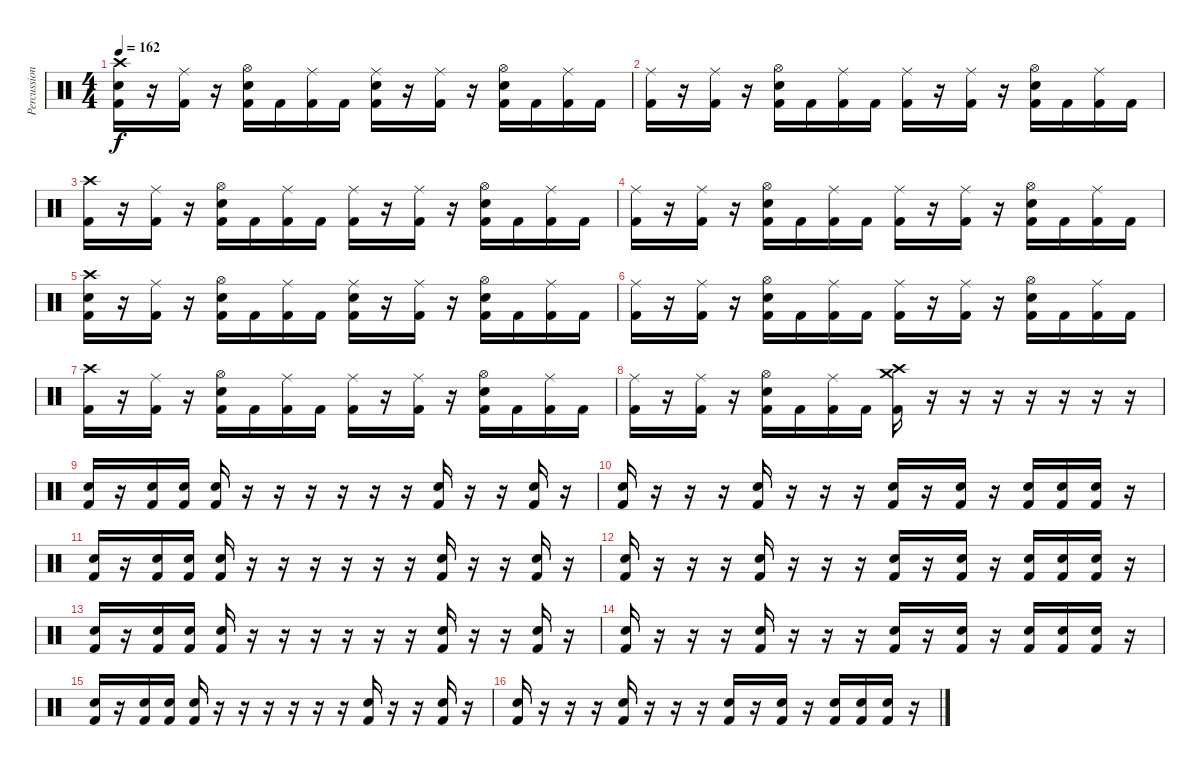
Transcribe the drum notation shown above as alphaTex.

\track ("Percussion" "Percussion") {instrument percussion}
\staff {score}
\articulation defaults
\ts (4 4)
\tempo 162
\clef neutral
\ks c
("Crash high (hit)" "Electric Snare (hit)" "Kick (hit) 2").16{dy f} r.16 ("Ride (middle)" "Kick (hit) 2").16 r.16 ("Hi-Hat (open)" "Electric Snare (hit)" "Kick (hit) 2").16 "Kick (hit) 2".16 ("Ride (middle)" "Kick (hit) 2").16 "Kick (hit) 2".16 ("Ride (middle)" "Electric Snare (hit)" "Kick (hit) 2").16 r.16 ("Ride (middle)" "Kick (hit) 2").16 r.16 ("Hi-Hat (open)" "Electric Snare (hit)" "Kick (hit) 2").16 "Kick (hit) 2".16 ("Ride (middle)" "Kick (hit) 2").16 "Kick (hit) 2".16 |
("Ride (middle)" "Kick (hit) 2").16 r.16 ("Ride (middle)" "Kick (hit) 2").16 r.16 ("Hi-Hat (open)" "Electric Snare (hit)" "Kick (hit) 2").16 "Kick (hit) 2".16 ("Ride (middle)" "Kick (hit) 2").16 "Kick (hit) 2".16 ("Ride (middle)" "Kick (hit) 2").16 r.16 ("Ride (middle)" "Kick (hit) 2").16 r.16 ("Hi-Hat (open)" "Electric Snare (hit)" "Kick (hit) 2").16 "Kick (hit) 2".16 ("Ride (middle)" "Kick (hit) 2").16 "Kick (hit) 2".16 |
("Crash high (hit)" "Kick (hit) 2").16 r.16 ("Ride (middle)" "Kick (hit) 2").16 r.16 ("Hi-Hat (open)" "Electric Snare (hit)" "Kick (hit) 2").16 "Kick (hit) 2".16 ("Ride (middle)" "Kick (hit) 2").16 "Kick (hit) 2".16 ("Ride (middle)" "Kick (hit) 2").16 r.16 ("Ride (middle)" "Kick (hit) 2").16 r.16 ("Hi-Hat (open)" "Electric Snare (hit)" "Kick (hit) 2").16 "Kick (hit) 2".16 ("Ride (middle)" "Kick (hit) 2").16 "Kick (hit) 2".16 |
("Ride (middle)" "Kick (hit) 2").16 r.16 ("Ride (middle)" "Kick (hit) 2").16 r.16 ("Hi-Hat (open)" "Electric Snare (hit)" "Kick (hit) 2").16 "Kick (hit) 2".16 ("Ride (middle)" "Kick (hit) 2").16 "Kick (hit) 2".16 ("Ride (middle)" "Kick (hit) 2").16 r.16 ("Ride (middle)" "Kick (hit) 2").16 r.16 ("Hi-Hat (open)" "Electric Snare (hit)" "Kick (hit) 2").16 "Kick (hit) 2".16 ("Ride (middle)" "Kick (hit) 2").16 "Kick (hit) 2".16 |
("Crash high (hit)" "Electric Snare (hit)" "Kick (hit) 2").16 r.16 ("Ride (middle)" "Kick (hit) 2").16 r.16 ("Hi-Hat (open)" "Electric Snare (hit)" "Kick (hit) 2").16 "Kick (hit) 2".16 ("Ride (middle)" "Kick (hit) 2").16 "Kick (hit) 2".16 ("Ride (middle)" "Electric Snare (hit)" "Kick (hit) 2").16 r.16 ("Ride (middle)" "Kick (hit) 2").16 r.16 ("Hi-Hat (open)" "Electric Snare (hit)" "Kick (hit) 2").16 "Kick (hit) 2".16 ("Ride (middle)" "Kick (hit) 2").16 "Kick (hit) 2".16 |
("Ride (middle)" "Kick (hit) 2").16 r.16 ("Ride (middle)" "Kick (hit) 2").16 r.16 ("Hi-Hat (open)" "Electric Snare (hit)" "Kick (hit) 2").16 "Kick (hit) 2".16 ("Ride (middle)" "Kick (hit) 2").16 "Kick (hit) 2".16 ("Ride (middle)" "Kick (hit) 2").16 r.16 ("Ride (middle)" "Kick (hit) 2").16 r.16 ("Hi-Hat (open)" "Electric Snare (hit)" "Kick (hit) 2").16 "Kick (hit) 2".16 ("Ride (middle)" "Kick (hit) 2").16 "Kick (hit) 2".16 |
("Crash high (hit)" "Kick (hit) 2").16 r.16 ("Ride (middle)" "Kick (hit) 2").16 r.16 ("Hi-Hat (open)" "Electric Snare (hit)" "Kick (hit) 2").16 "Kick (hit) 2".16 ("Ride (middle)" "Kick (hit) 2").16 "Kick (hit) 2".16 ("Ride (middle)" "Kick (hit) 2").16 r.16 ("Ride (middle)" "Kick (hit) 2").16 r.16 ("Hi-Hat (open)" "Electric Snare (hit)" "Kick (hit) 2").16 "Kick (hit) 2".16 ("Ride (middle)" "Kick (hit) 2").16 "Kick (hit) 2".16 |
("Ride (middle)" "Kick (hit) 2").16 r.16 ("Ride (middle)" "Kick (hit) 2").16 r.16 ("Hi-Hat (open)" "Electric Snare (hit)" "Kick (hit) 2").16 "Kick (hit) 2".16 ("Ride (middle)" "Kick (hit) 2").16 "Kick (hit) 2".16 ("Crash medium (hit)" "Crash high (hit)" "Kick (hit) 2").16 r.16 r.16 r.16 r.16 r.16 r.16 r.16 |
("Electric Snare (hit)" "Kick (hit) 2").16 r.16 ("Electric Snare (hit)" "Kick (hit) 2").16 ("Electric Snare (hit)" "Kick (hit) 2").16 ("Electric Snare (hit)" "Kick (hit) 2").16 r.16 r.16 r.16 r.16 r.16 r.16 ("Electric Snare (hit)" "Kick (hit) 2").16 r.16 r.16 ("Electric Snare (hit)" "Kick (hit) 2").16 r.16 |
("Electric Snare (hit)" "Kick (hit) 2").16 r.16 r.16 r.16 ("Electric Snare (hit)" "Kick (hit) 2").16 r.16 r.16 r.16 ("Electric Snare (hit)" "Kick (hit) 2").16 r.16 ("Electric Snare (hit)" "Kick (hit) 2").16 r.16 ("Electric Snare (hit)" "Kick (hit) 2").16 ("Electric Snare (hit)" "Kick (hit) 2").16 ("Electric Snare (hit)" "Kick (hit) 2").16 r.16 |
("Electric Snare (hit)" "Kick (hit) 2").16 r.16 ("Electric Snare (hit)" "Kick (hit) 2").16 ("Electric Snare (hit)" "Kick (hit) 2").16 ("Electric Snare (hit)" "Kick (hit) 2").16 r.16 r.16 r.16 r.16 r.16 r.16 ("Electric Snare (hit)" "Kick (hit) 2").16 r.16 r.16 ("Electric Snare (hit)" "Kick (hit) 2").16 r.16 |
("Electric Snare (hit)" "Kick (hit) 2").16 r.16 r.16 r.16 ("Electric Snare (hit)" "Kick (hit) 2").16 r.16 r.16 r.16 ("Electric Snare (hit)" "Kick (hit) 2").16 r.16 ("Electric Snare (hit)" "Kick (hit) 2").16 r.16 ("Electric Snare (hit)" "Kick (hit) 2").16 ("Electric Snare (hit)" "Kick (hit) 2").16 ("Electric Snare (hit)" "Kick (hit) 2").16 r.16 |
("Electric Snare (hit)" "Kick (hit) 2").16 r.16 ("Electric Snare (hit)" "Kick (hit) 2").16 ("Electric Snare (hit)" "Kick (hit) 2").16 ("Electric Snare (hit)" "Kick (hit) 2").16 r.16 r.16 r.16 r.16 r.16 r.16 ("Electric Snare (hit)" "Kick (hit) 2").16 r.16 r.16 ("Electric Snare (hit)" "Kick (hit) 2").16 r.16 |
("Electric Snare (hit)" "Kick (hit) 2").16 r.16 r.16 r.16 ("Electric Snare (hit)" "Kick (hit) 2").16 r.16 r.16 r.16 ("Electric Snare (hit)" "Kick (hit) 2").16 r.16 ("Electric Snare (hit)" "Kick (hit) 2").16 r.16 ("Electric Snare (hit)" "Kick (hit) 2").16 ("Electric Snare (hit)" "Kick (hit) 2").16 ("Electric Snare (hit)" "Kick (hit) 2").16 r.16 |
("Electric Snare (hit)" "Kick (hit) 2").16 r.16 ("Electric Snare (hit)" "Kick (hit) 2").16 ("Electric Snare (hit)" "Kick (hit) 2").16 ("Electric Snare (hit)" "Kick (hit) 2").16 r.16 r.16 r.16 r.16 r.16 r.16 ("Electric Snare (hit)" "Kick (hit) 2").16 r.16 r.16 ("Electric Snare (hit)" "Kick (hit) 2").16 r.16 |
("Electric Snare (hit)" "Kick (hit) 2").16 r.16 r.16 r.16 ("Electric Snare (hit)" "Kick (hit) 2").16 r.16 r.16 r.16 ("Electric Snare (hit)" "Kick (hit) 2").16 r.16 ("Electric Snare (hit)" "Kick (hit) 2").16 r.16 ("Electric Snare (hit)" "Kick (hit) 2").16 ("Electric Snare (hit)" "Kick (hit) 2").16 ("Electric Snare (hit)" "Kick (hit) 2").16 r.16
